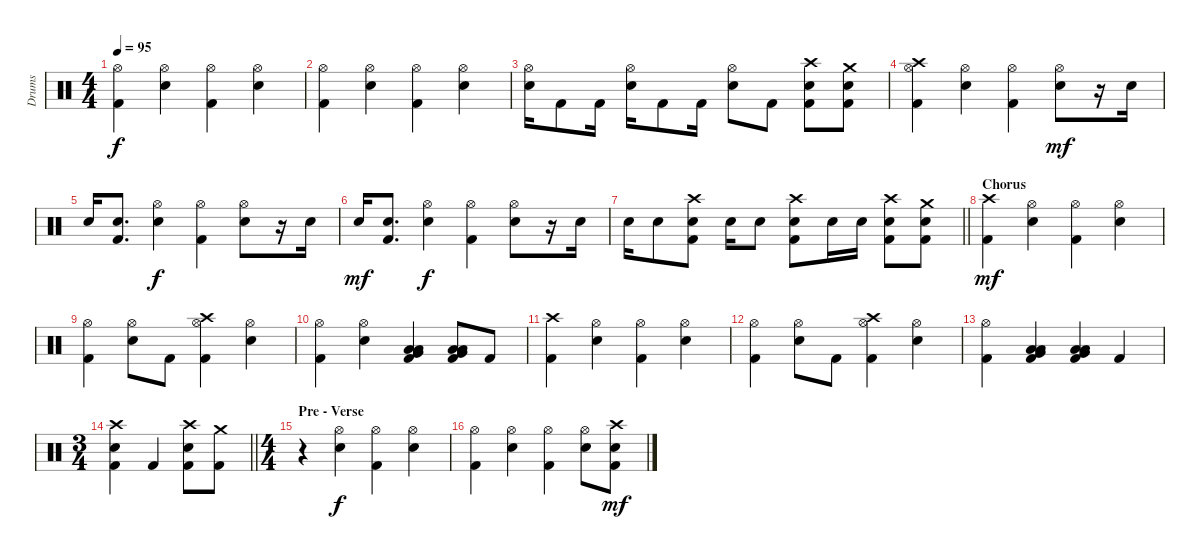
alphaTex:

\track ("Drums" "Drums") {instrument percussion}
\staff {score}
\articulation defaults
\ts (4 4)
\tempo 95
\clef neutral
\ks c
("Hi-Hat (open)" "Kick (hit) 2").4{dy f} ("Hi-Hat (open)" "Electric Snare (hit)").4 ("Hi-Hat (open)" "Kick (hit) 2").4 ("Hi-Hat (open)" "Electric Snare (hit)").4 |
("Hi-Hat (open)" "Kick (hit) 2").4 ("Hi-Hat (open)" "Electric Snare (hit)").4 ("Hi-Hat (open)" "Kick (hit) 2").4 ("Hi-Hat (open)" "Electric Snare (hit)").4 |
("Hi-Hat (open)" "Electric Snare (hit)").16 "Kick (hit) 2".8 "Kick (hit) 2".16 ("Hi-Hat (open)" "Electric Snare (hit)").16 "Kick (hit) 2".8 "Kick (hit) 2".16 ("Hi-Hat (open)" "Electric Snare (hit)").8 "Kick (hit) 2".8 ("Crash high (hit)" "Electric Snare (hit)" "Kick (hit) 2").8 ("Crash medium (hit)" "Electric Snare (hit)" "Kick (hit) 2").8 |
("Crash high (hit)" "Hi-Hat (open)" "Kick (hit) 2").4 ("Hi-Hat (open)" "Electric Snare (hit)").4 ("Hi-Hat (open)" "Kick (hit) 2").4 ("Hi-Hat (open)" "Electric Snare (hit)").8{dy mf} r.16 "Electric Snare (hit)".16 |
"Electric Snare (hit)".16 ("Electric Snare (hit)" "Kick (hit) 2").8{d} ("Hi-Hat (open)" "Electric Snare (hit)").4{dy f} ("Hi-Hat (open)" "Kick (hit) 2").4 ("Hi-Hat (open)" "Electric Snare (hit)").8 r.16 "Electric Snare (hit)".16 |
"Electric Snare (hit)".16{dy mf} ("Electric Snare (hit)" "Kick (hit) 2").8{d} ("Hi-Hat (open)" "Electric Snare (hit)").4{dy f} ("Hi-Hat (open)" "Kick (hit) 2").4 ("Hi-Hat (open)" "Electric Snare (hit)").8 r.16 "Electric Snare (hit)".16 |
\barLineRight lightlight "Electric Snare (hit)".16 "Electric Snare (hit)".8
("Crash high (hit)" "Electric Snare (hit)" "Kick (hit) 2").8 "Electric Snare (hit)".16 "Electric Snare (hit)".8 ("Crash high (hit)" "Electric Snare (hit)" "Kick (hit) 2").8 "Electric Snare (hit)".16 "Electric Snare (hit)".16 ("Crash high (hit)" "Electric Snare (hit)" "Kick (hit) 2").8 ("Crash medium (hit)" "Electric Snare (hit)" "Kick (hit) 2").8 |
\section ("" "Chorus")
("Crash high (hit)" "Kick (hit) 2").4{dy mf} ("Hi-Hat (open)" "Electric Snare (hit)").4 ("Hi-Hat (open)" "Kick (hit) 2").4 ("Hi-Hat (open)" "Electric Snare (hit)").4 |
("Hi-Hat (open)" "Kick (hit) 2").4 ("Hi-Hat (open)" "Electric Snare (hit)").8 "Kick (hit) 2".8 ("Crash high (hit)" "Hi-Hat (open)" "Kick (hit) 2").4 ("Hi-Hat (open)" "Electric Snare (hit)").4 |
("Hi-Hat (open)" "Kick (hit) 2").4 ("Hi-Hat (open)" "Electric Snare (hit)").4 ("Low Floor Tom (hit)" "Very Low Tom (hit)" "Low Tom (hit)" "Kick (hit) 2").4 ("Low Floor Tom (hit)" "Very Low Tom (hit)" "Low Tom (hit)" "Kick (hit) 2").8 "Kick (hit) 2".8 |
("Crash high (hit)" "Kick (hit) 2").4 ("Hi-Hat (open)" "Electric Snare (hit)").4 ("Hi-Hat (open)" "Kick (hit) 2").4 ("Hi-Hat (open)" "Electric Snare (hit)").4 |
("Hi-Hat (open)" "Kick (hit) 2").4 ("Hi-Hat (open)" "Electric Snare (hit)").8 "Kick (hit) 2".8 ("Crash high (hit)" "Hi-Hat (open)" "Kick (hit) 2").4 ("Hi-Hat (open)" "Electric Snare (hit)").4 |
("Hi-Hat (open)" "Kick (hit) 2").4 ("Low Floor Tom (hit)" "Very Low Tom (hit)" "Low Tom (hit)" "Kick (hit) 2").4 ("Low Floor Tom (hit)" "Very Low Tom (hit)" "Low Tom (hit)" "Kick (hit) 2").4 "Kick (hit) 2".4 |
\ts (3 4)
\barLineRight lightlight
("Crash high (hit)" "Electric Snare (hit)" "Kick (hit) 2").4 "Kick (hit) 2".4 ("Crash high (hit)" "Electric Snare (hit)" "Kick (hit) 2").8 ("Crash medium (hit)" "Kick (hit) 2").8 |
\ts (4 4)
\section ("" "Pre - Verse")
r.4 ("Hi-Hat (open)" "Electric Snare (hit)").4{dy f} ("Hi-Hat (open)" "Kick (hit) 2").4 ("Hi-Hat (open)" "Electric Snare (hit)").4 |
("Hi-Hat (open)" "Kick (hit) 2").4 ("Hi-Hat (open)" "Electric Snare (hit)").4 ("Hi-Hat (open)" "Kick (hit) 2").4 ("Hi-Hat (open)" "Electric Snare (hit)").8 ("Crash high (hit)" "Electric Snare (hit)" "Kick (hit) 2").8{dy mf}
